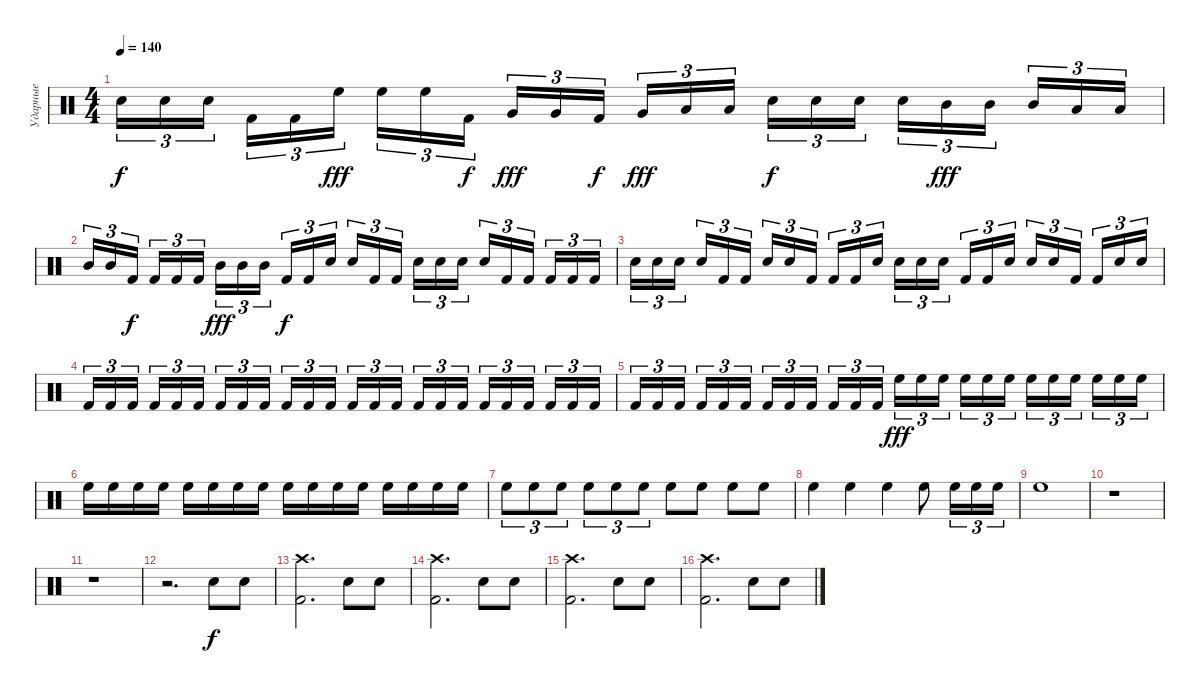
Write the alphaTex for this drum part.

\track ("Ударные" "Ударные") {instrument percussion}
\staff
\articulation defaults
\ts (4 4)
\tempo 140
\clef neutral
\ks c "Snare (hit) 2".16{tu (3 2) dy f} "Snare (hit) 2".16{tu (3 2)} "Snare (hit) 2".16{tu (3 2) beam splitsecondary} "Kick (hit) 2".16{tu (3 2)} "Kick (hit) 2".16{tu (3 2)} "High Floor Tom (hit)".16{tu (3 2) dy fff} "High Floor Tom (hit)".16{tu (3 2)} "High Floor Tom (hit)".16{tu (3 2)} "Kick (hit) 2".16{tu (3 2) dy f beam splitsecondary} "Very Low Tom (hit)".16{tu (3 2) dy fff} "Very Low Tom (hit)".16{tu (3 2)} "Kick (hit) 2".16{tu (3 2) dy f} "Very Low Tom (hit)".16{tu (3 2) dy fff} "Low Floor Tom (hit)".16{tu (3 2)} "Low Floor Tom (hit)".16{tu (3 2) beam splitsecondary} "Snare (hit) 2".16{tu (3 2) dy f} "Snare (hit) 2".16{tu (3 2)} "Snare (hit) 2".16{tu (3 2)} "Snare (hit) 2".16{tu (3 2)} "Mid Tom (hit)".16{tu (3 2) dy fff} "Mid Tom (hit)".16{tu (3 2) beam splitsecondary} "Mid Tom (hit)".16{tu (3 2)} "Low Floor Tom (hit)".16{tu (3 2)} "Low Floor Tom (hit)".16{tu (3 2)}
|
"Mid Tom (hit)".16{tu (3 2)} "Mid Tom (hit)".16{tu (3 2)} "Kick (hit) 2".16{tu (3 2) dy f beam splitsecondary} "Kick (hit) 2".16{tu (3 2)} "Kick (hit) 2".16{tu (3 2)} "Kick (hit) 2".16{tu (3 2)} "Mid Tom (hit)".16{tu (3 2) dy fff} "Mid Tom (hit)".16{tu (3 2)} "Mid Tom (hit)".16{tu (3 2) beam splitsecondary} "Kick (hit) 2".16{tu (3 2) dy f} "Kick (hit) 2".16{tu (3 2)} "Snare (hit) 2".16{tu (3 2)} "Snare (hit) 2".16{tu (3 2)} "Kick (hit) 2".16{tu (3 2)} "Kick (hit) 2".16{tu (3 2) beam splitsecondary} "Snare (hit) 2".16{tu (3 2)} "Snare (hit) 2".16{tu (3 2)} "Snare (hit) 2".16{tu (3 2)} "Snare (hit) 2".16{tu (3 2)} "Kick (hit) 2".16{tu (3 2)} "Kick (hit) 2".16{tu (3 2) beam splitsecondary} "Kick (hit) 2".16{tu (3 2)} "Kick (hit) 2".16{tu (3 2)} "Kick (hit) 2".16{tu (3 2)} |
"Snare (hit) 2".16{tu (3 2)} "Snare (hit) 2".16{tu (3 2)} "Snare (hit) 2".16{tu (3 2) beam splitsecondary} "Snare (hit) 2".16{tu (3 2)} "Kick (hit) 2".16{tu (3 2)} "Kick (hit) 2".16{tu (3 2)} "Snare (hit) 2".16{tu (3 2)} "Snare (hit) 2".16{tu (3 2)} "Kick (hit) 2".16{tu (3 2) beam splitsecondary} "Kick (hit) 2".16{tu (3 2)} "Kick (hit) 2".16{tu (3 2)} "Snare (hit) 2".16{tu (3 2)} "Snare (hit) 2".16{tu (3 2)} "Snare (hit) 2".16{tu (3 2)} "Snare (hit) 2".16{tu (3 2) beam splitsecondary} "Kick (hit) 2".16{tu (3 2)} "Kick (hit) 2".16{tu (3 2)} "Snare (hit) 2".16{tu (3 2)} "Snare (hit) 2".16{tu (3 2)} "Snare (hit) 2".16{tu (3 2)} "Kick (hit) 2".16{tu (3 2) beam splitsecondary} "Kick (hit) 2".16{tu (3 2)} "Snare (hit) 2".16{tu (3 2)} "Snare (hit) 2".16{tu (3 2)} |
"Kick (hit) 2".16{tu (3 2)} "Kick (hit) 2".16{tu (3 2)} "Kick (hit) 2".16{tu (3 2) beam splitsecondary} "Kick (hit) 2".16{tu (3 2)} "Kick (hit) 2".16{tu (3 2)} "Kick (hit) 2".16{tu (3 2)} "Kick (hit) 2".16{tu (3 2)} "Kick (hit) 2".16{tu (3 2)} "Kick (hit) 2".16{tu (3 2) beam splitsecondary} "Kick (hit) 2".16{tu (3 2)} "Kick (hit) 2".16{tu (3 2)} "Kick (hit) 2".16{tu (3 2)} "Kick (hit) 2".16{tu (3 2)} "Kick (hit) 2".16{tu (3 2)} "Kick (hit) 2".16{tu (3 2) beam splitsecondary} "Kick (hit) 2".16{tu (3 2)} "Kick (hit) 2".16{tu (3 2)} "Kick (hit) 2".16{tu (3 2)} "Kick (hit) 2".16{tu (3 2)} "Kick (hit) 2".16{tu (3 2)} "Kick (hit) 2".16{tu (3 2) beam splitsecondary} "Kick (hit) 2".16{tu (3 2)} "Kick (hit) 2".16{tu (3 2)} "Kick (hit) 2".16{tu (3 2)} |
"Kick (hit) 2".16{tu (3 2)} "Kick (hit) 2".16{tu (3 2)} "Kick (hit) 2".16{tu (3 2) beam splitsecondary} "Kick (hit) 2".16{tu (3 2)} "Kick (hit) 2".16{tu (3 2)} "Kick (hit) 2".16{tu (3 2)} "Kick (hit) 2".16{tu (3 2)} "Kick (hit) 2".16{tu (3 2)} "Kick (hit) 2".16{tu (3 2) beam splitsecondary} "Kick (hit) 2".16{tu (3 2)} "Kick (hit) 2".16{tu (3 2)} "Kick (hit) 2".16{tu (3 2)} "High Floor Tom (hit)".16{tu (3 2) dy fff} "High Floor Tom (hit)".16{tu (3 2)} "High Floor Tom (hit)".16{tu (3 2) beam splitsecondary} "High Floor Tom (hit)".16{tu (3 2)} "High Floor Tom (hit)".16{tu (3 2)} "High Floor Tom (hit)".16{tu (3 2)} "High Floor Tom (hit)".16{tu (3 2)} "High Floor Tom (hit)".16{tu (3 2)} "High Floor Tom (hit)".16{tu (3 2) beam splitsecondary} "High Floor Tom (hit)".16{tu (3 2)} "High Floor Tom (hit)".16{tu (3 2)} "High Floor Tom (hit)".16{tu (3 2)} |
"High Floor Tom (hit)".16 "High Floor Tom (hit)".16 "High Floor Tom (hit)".16 "High Floor Tom (hit)".16 "High Floor Tom (hit)".16 "High Floor Tom (hit)".16 "High Floor Tom (hit)".16 "High Floor Tom (hit)".16 "High Floor Tom (hit)".16 "High Floor Tom (hit)".16 "High Floor Tom (hit)".16 "High Floor Tom (hit)".16 "High Floor Tom (hit)".16 "High Floor Tom (hit)".16 "High Floor Tom (hit)".16 "High Floor Tom (hit)".16 |
"High Floor Tom (hit)".8{tu (3 2)} "High Floor Tom (hit)".8{tu (3 2)} "High Floor Tom (hit)".8{tu (3 2)} "High Floor Tom (hit)".8{tu (3 2)} "High Floor Tom (hit)".8{tu (3 2)} "High Floor Tom (hit)".8{tu (3 2)} "High Floor Tom (hit)".8 "High Floor Tom (hit)".8 "High Floor Tom (hit)".8 "High Floor Tom (hit)".8 |
"High Floor Tom (hit)".4 "High Floor Tom (hit)".4 "High Floor Tom (hit)".4 "High Floor Tom (hit)".8 "High Floor Tom (hit)".16{tu (3 2)} "High Floor Tom (hit)".16{tu (3 2)} "High Floor Tom (hit)".16{tu (3 2)} |
"High Floor Tom (hit)".1 |
r.1 |
r.1 |
r.2{d} "Snare (hit) 2".8{dy f} "Snare (hit) 2".8 |
("Kick (hit) 2" "Crash high (hit)").2{d} "Snare (hit) 2".8 "Snare (hit) 2".8 |
("Kick (hit) 2" "Crash high (hit)").2{d} "Snare (hit) 2".8 "Snare (hit) 2".8 |
("Kick (hit) 2" "Crash high (hit)").2{d} "Snare (hit) 2".8 "Snare (hit) 2".8 |
("Kick (hit) 2" "Crash high (hit)").2{d} "Snare (hit) 2".8 "Snare (hit) 2".8
